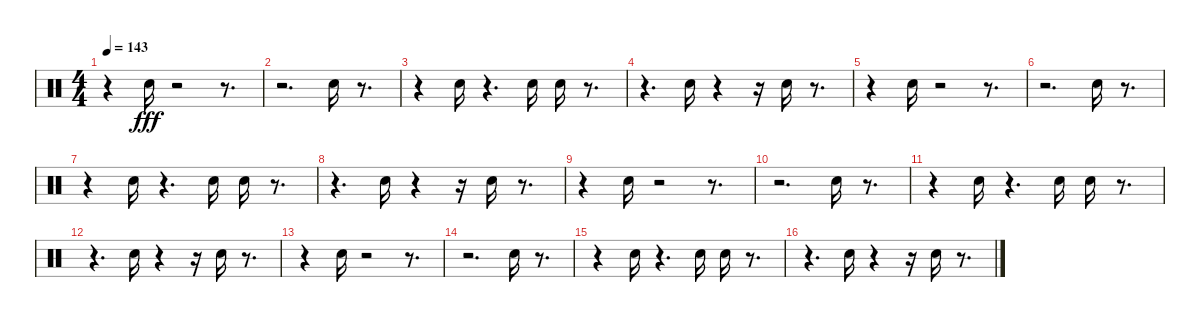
\track "" {instrument percussion}
\staff {score}
\articulation defaults
\ts (4 4)
\tempo 143
\clef neutral
\ks c
r.4{dy fff} "Snare (hit) 2".16 r.2 r.8{d} |
r.2{d} "Snare (hit) 2".16 r.8{d} |
r.4 "Snare (hit) 2".16 r.4{d} "Snare (hit) 2".16 "Snare (hit) 2".16 r.8{d} |
r.4{d} "Snare (hit) 2".16 r.4 r.16 "Snare (hit) 2".16 r.8{d} |
r.4 "Snare (hit) 2".16 r.2 r.8{d} |
r.2{d} "Snare (hit) 2".16 r.8{d} |
r.4 "Snare (hit) 2".16 r.4{d} "Snare (hit) 2".16 "Snare (hit) 2".16 r.8{d} |
r.4{d} "Snare (hit) 2".16 r.4 r.16 "Snare (hit) 2".16 r.8{d} |
r.4 "Snare (hit) 2".16 r.2 r.8{d} |
r.2{d} "Snare (hit) 2".16 r.8{d} |
r.4 "Snare (hit) 2".16 r.4{d} "Snare (hit) 2".16 "Snare (hit) 2".16 r.8{d} |
r.4{d} "Snare (hit) 2".16 r.4 r.16 "Snare (hit) 2".16 r.8{d} |
r.4 "Snare (hit) 2".16 r.2 r.8{d} |
r.2{d} "Snare (hit) 2".16 r.8{d} |
r.4 "Snare (hit) 2".16 r.4{d} "Snare (hit) 2".16 "Snare (hit) 2".16 r.8{d} |
r.4{d} "Snare (hit) 2".16 r.4 r.16 "Snare (hit) 2".16 r.8{d}
